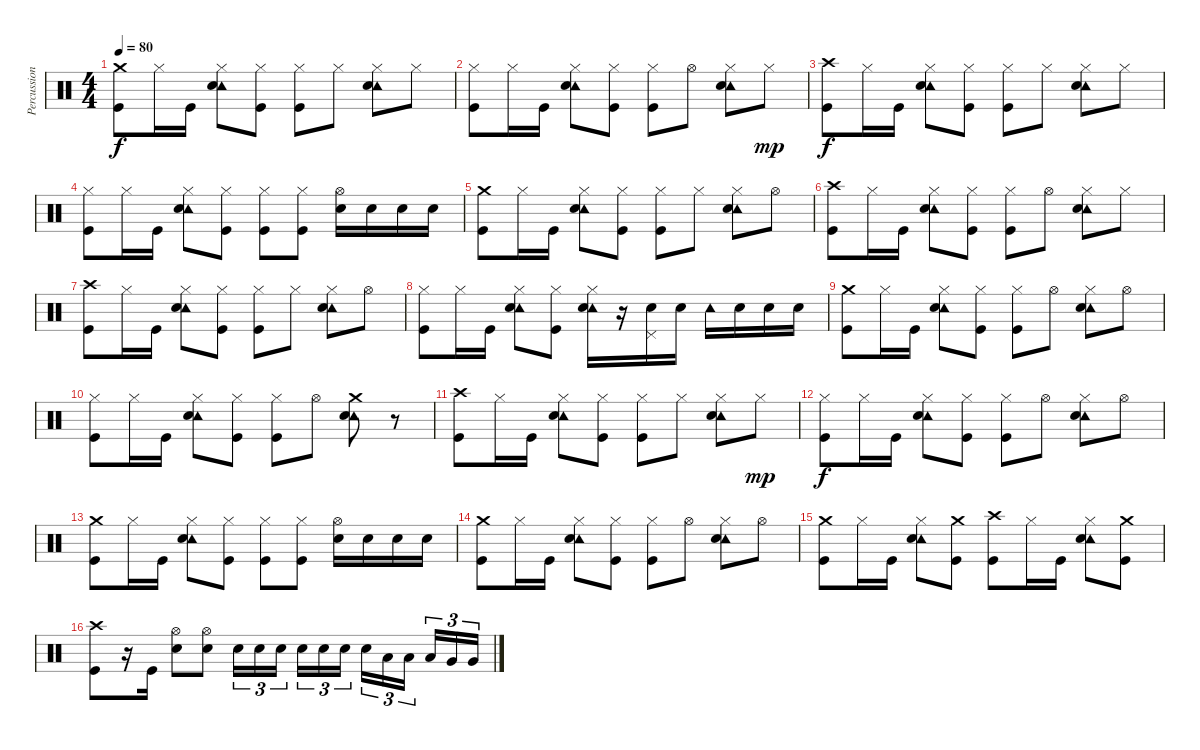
\track ("Percussion" "Percussion") {instrument percussion}
\staff {score}
\articulation defaults
\ts (4 4)
\tempo 80
\clef neutral
\ks c
("Crash medium (hit)" "Kick (hit)").8{dy f} "Hi-Hat (closed)".16 "Kick (hit)".16 ("Hi-Hat (closed)" "Tambourine (hit)" "Electric Snare (hit)").8 ("Hi-Hat (closed)" "Kick (hit)").8 ("Hi-Hat (closed)" "Kick (hit)").8 "Hi-Hat (closed)".8 ("Hi-Hat (closed)" "Tambourine (hit)" "Electric Snare (hit)").8 "Hi-Hat (closed)".8 |
("Hi-Hat (closed)" "Kick (hit)").8 "Hi-Hat (closed)".16 "Kick (hit)".16 ("Hi-Hat (closed)" "Tambourine (hit)" "Electric Snare (hit)").8 ("Hi-Hat (closed)" "Kick (hit)").8 ("Hi-Hat (closed)" "Kick (hit)").8 "Hi-Hat (open)".8 ("Hi-Hat (closed)" "Tambourine (hit)" "Electric Snare (hit)").8 "Hi-Hat (closed)".8{dy mp} |
("Crash high (hit)" "Kick (hit)").8{dy f} "Hi-Hat (closed)".16 "Kick (hit)".16 ("Hi-Hat (closed)" "Tambourine (hit)" "Electric Snare (hit)").8 ("Hi-Hat (closed)" "Kick (hit)").8 ("Hi-Hat (closed)" "Kick (hit)").8 "Hi-Hat (closed)".8 ("Hi-Hat (closed)" "Tambourine (hit)" "Electric Snare (hit)").8 "Hi-Hat (closed)".8 |
("Hi-Hat (closed)" "Kick (hit)").8 "Hi-Hat (closed)".16 "Kick (hit)".16 ("Hi-Hat (closed)" "Tambourine (hit)" "Electric Snare (hit)").8 ("Hi-Hat (closed)" "Kick (hit)").8 ("Hi-Hat (closed)" "Kick (hit)").8 ("Hi-Hat (closed)" "Kick (hit)").8 ("Hi-Hat (open)" "Electric Snare (hit)").16 "Electric Snare (hit)".16 "Electric Snare (hit)".16 "Electric Snare (hit)".16 |
("Crash medium (hit)" "Kick (hit)").8 "Hi-Hat (closed)".16 "Kick (hit)".16 ("Hi-Hat (closed)" "Tambourine (hit)" "Electric Snare (hit)").8 ("Hi-Hat (closed)" "Kick (hit)").8 ("Hi-Hat (closed)" "Kick (hit)").8 "Hi-Hat (closed)".8 ("Hi-Hat (closed)" "Tambourine (hit)" "Electric Snare (hit)").8 "Hi-Hat (open)".8 |
("Crash high (hit)" "Kick (hit)").8 "Hi-Hat (closed)".16 "Kick (hit)".16 ("Hi-Hat (closed)" "Tambourine (hit)" "Electric Snare (hit)").8 ("Hi-Hat (closed)" "Kick (hit)").8 ("Hi-Hat (closed)" "Kick (hit)").8 "Hi-Hat (open)".8 ("Hi-Hat (closed)" "Tambourine (hit)" "Electric Snare (hit)").8 "Hi-Hat (closed)".8 |
("Crash high (hit)" "Kick (hit)").8 "Hi-Hat (closed)".16 "Kick (hit)".16 ("Hi-Hat (closed)" "Tambourine (hit)" "Electric Snare (hit)").8 ("Hi-Hat (closed)" "Kick (hit)").8 ("Hi-Hat (closed)" "Kick (hit)").8 "Hi-Hat (closed)".8 ("Hi-Hat (closed)" "Tambourine (hit)" "Electric Snare (hit)").8 "Hi-Hat (open)".8 |
("Hi-Hat (closed)" "Kick (hit)").8 "Hi-Hat (closed)".16 "Kick (hit)".16 ("Hi-Hat (closed)" "Tambourine (hit)" "Electric Snare (hit)").8 ("Hi-Hat (closed)" "Kick (hit)").8 ("Hi-Hat (closed)" "Tambourine (hit)" "Electric Snare (hit)").16 r.16 ("Pedal Hi-Hat (hit)" "Electric Snare (hit)").16 "Electric Snare (hit)".16 "Tambourine (hit)".16 "Electric Snare (hit)".16 "Electric Snare (hit)".16 "Electric Snare (hit)".16 |
("Crash medium (hit)" "Kick (hit)").8 "Hi-Hat (closed)".16 "Kick (hit)".16 ("Hi-Hat (closed)" "Tambourine (hit)" "Electric Snare (hit)").8 ("Hi-Hat (closed)" "Kick (hit)").8 ("Hi-Hat (closed)" "Kick (hit)").8 "Hi-Hat (open)".8 ("Hi-Hat (closed)" "Tambourine (hit)" "Electric Snare (hit)").8 "Hi-Hat (open)".8 |
("Hi-Hat (closed)" "Kick (hit)").8 "Hi-Hat (closed)".16 "Kick (hit)".16 ("Hi-Hat (closed)" "Tambourine (hit)" "Electric Snare (hit)").8 ("Hi-Hat (closed)" "Kick (hit)").8 ("Hi-Hat (closed)" "Kick (hit)").8 "Hi-Hat (open)".8 ("Crash medium (hit)" "Tambourine (hit)" "Electric Snare (hit)").8 r.8 |
("Crash high (hit)" "Kick (hit)").8 "Hi-Hat (closed)".16 "Kick (hit)".16 ("Hi-Hat (closed)" "Tambourine (hit)" "Electric Snare (hit)").8 ("Hi-Hat (closed)" "Kick (hit)").8 ("Hi-Hat (closed)" "Kick (hit)").8 "Hi-Hat (closed)".8 ("Hi-Hat (closed)" "Tambourine (hit)" "Electric Snare (hit)").8 "Hi-Hat (closed)".8{dy mp} |
("Hi-Hat (closed)" "Kick (hit)").8{dy f} "Hi-Hat (closed)".16 "Kick (hit)".16 ("Hi-Hat (closed)" "Tambourine (hit)" "Electric Snare (hit)").8 ("Hi-Hat (closed)" "Kick (hit)").8 ("Hi-Hat (closed)" "Kick (hit)").8 "Hi-Hat (open)".8 ("Hi-Hat (closed)" "Tambourine (hit)" "Electric Snare (hit)").8 "Hi-Hat (open)".8 |
("Crash medium (hit)" "Kick (hit)").8 "Hi-Hat (closed)".16 "Kick (hit)".16 ("Hi-Hat (closed)" "Tambourine (hit)" "Electric Snare (hit)").8 ("Hi-Hat (closed)" "Kick (hit)").8 ("Hi-Hat (closed)" "Kick (hit)").8 ("Hi-Hat (closed)" "Kick (hit)").8 ("Hi-Hat (open)" "Electric Snare (hit)").16 "Electric Snare (hit)".16 "Electric Snare (hit)".16 "Electric Snare (hit)".16 |
("Crash medium (hit)" "Kick (hit)").8 "Hi-Hat (closed)".16 "Kick (hit)".16 ("Hi-Hat (closed)" "Tambourine (hit)" "Electric Snare (hit)").8 ("Hi-Hat (closed)" "Kick (hit)").8 ("Hi-Hat (closed)" "Kick (hit)").8 "Hi-Hat (open)".8 ("Hi-Hat (closed)" "Tambourine (hit)" "Electric Snare (hit)").8 "Hi-Hat (open)".8 |
("Crash medium (hit)" "Kick (hit)").8 "Hi-Hat (closed)".16 "Kick (hit)".16 ("Hi-Hat (closed)" "Tambourine (hit)" "Electric Snare (hit)").8 ("Crash medium (hit)" "Kick (hit)").8 ("Crash high (hit)" "Kick (hit)").8 "Hi-Hat (closed)".16 "Kick (hit)".16 ("Hi-Hat (closed)" "Tambourine (hit)" "Electric Snare (hit)").8 ("Crash medium (hit)" "Kick (hit)").8 |
("Crash high (hit)" "Kick (hit)").8 r.16 "Kick (hit)".16 ("Hi-Hat (open)" "Electric Snare (hit)").8 ("Hi-Hat (open)" "Electric Snare (hit)").8 "Electric Snare (hit)".16{tu (3 2)} "Electric Snare (hit)".16{tu (3 2)} "Electric Snare (hit)".16{tu (3 2)} "Electric Snare (hit)".16{tu (3 2)} "Electric Snare (hit)".16{tu (3 2)} "Electric Snare (hit)".16{tu (3 2)} "Electric Snare (hit)".16{tu (3 2)} "Low Tom (hit)".16{tu (3 2)} "Low Tom (hit)".16{tu (3 2)} "Low Tom (hit)".16{tu (3 2)} "Very Low Tom (hit)".16{tu (3 2)} "Very Low Tom (hit)".16{tu (3 2)}
